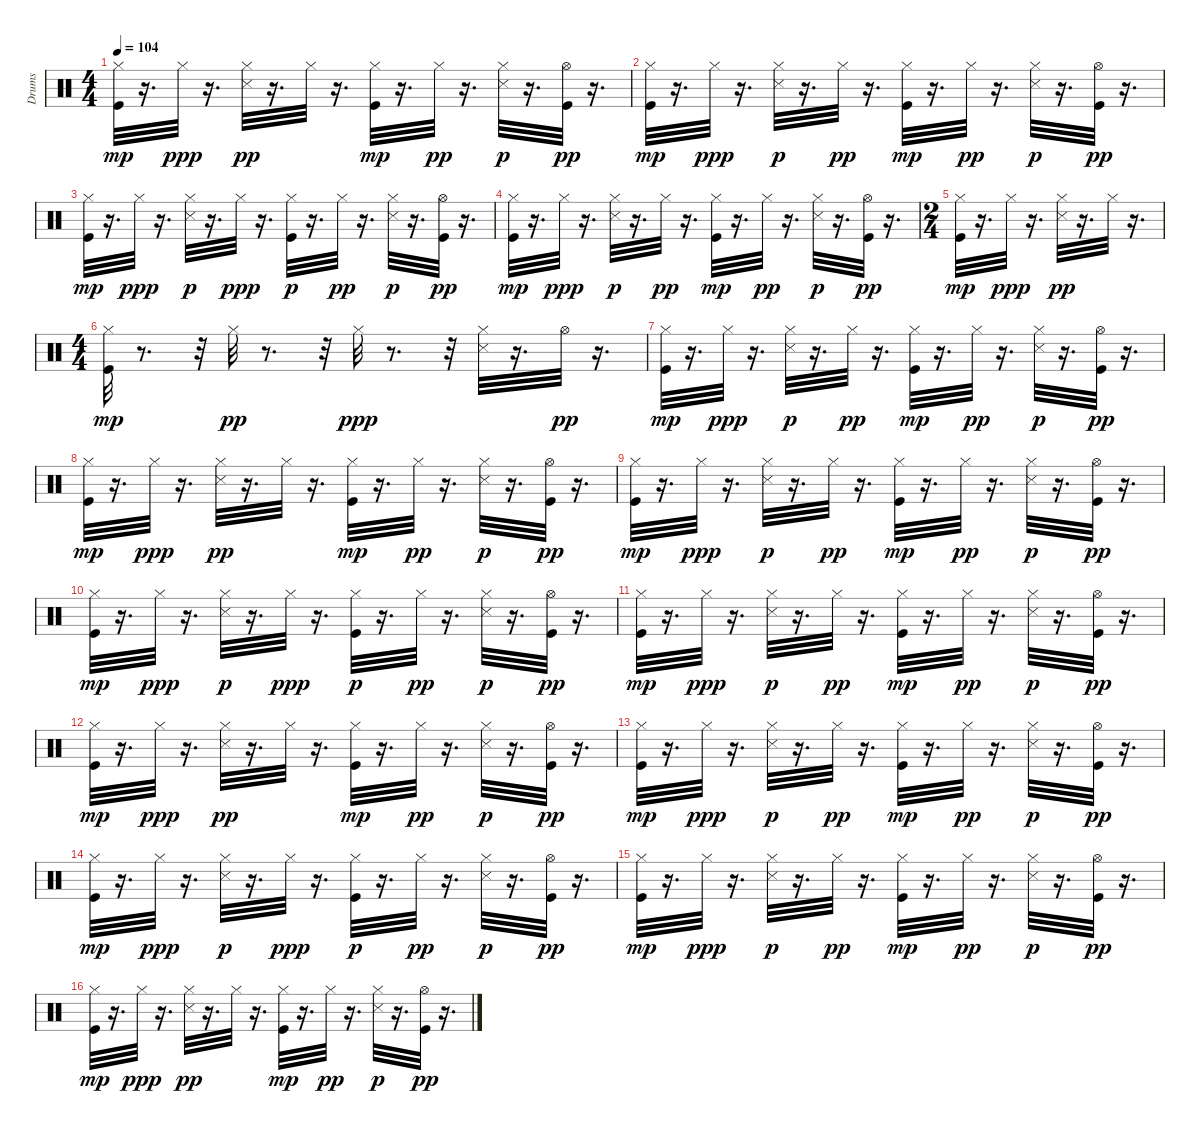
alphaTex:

\track ("Drums" "Drums") {instrument percussion}
\staff {score}
\articulation defaults
\ts (4 4)
\tempo 104
\clef neutral
\ks c
("Kick (hit)" "Hi-Hat (closed)").32{dy mp} r.16{d} "Hi-Hat (closed)".32{dy ppp} r.16{d} ("Snare (side stick) 3" "Hi-Hat (closed)").32{dy pp} r.16{d} "Hi-Hat (closed)".32 r.16{d} ("Kick (hit)" "Hi-Hat (closed)").32{dy mp} r.16{d} "Hi-Hat (closed)".32{dy pp} r.16{d} ("Snare (side stick) 3" "Hi-Hat (closed)").32{dy p} r.16{d} ("Kick (hit)" "Hi-Hat (open)").32{dy pp} r.16{d} |
("Kick (hit)" "Hi-Hat (closed)").32{dy mp} r.16{d} "Hi-Hat (closed)".32{dy ppp} r.16{d} ("Snare (side stick) 3" "Hi-Hat (closed)").32{dy p} r.16{d} "Hi-Hat (closed)".32{dy pp} r.16{d} ("Kick (hit)" "Hi-Hat (closed)").32{dy mp} r.16{d} "Hi-Hat (closed)".32{dy pp} r.16{d} ("Snare (side stick) 3" "Hi-Hat (closed)").32{dy p} r.16{d} ("Kick (hit)" "Hi-Hat (open)").32{dy pp} r.16{d} |
("Kick (hit)" "Hi-Hat (closed)").32{dy mp} r.16{d} "Hi-Hat (closed)".32{dy ppp} r.16{d} ("Snare (side stick) 3" "Hi-Hat (closed)").32{dy p} r.16{d} "Hi-Hat (closed)".32{dy ppp} r.16{d} ("Kick (hit)" "Hi-Hat (closed)").32{dy p} r.16{d} "Hi-Hat (closed)".32{dy pp} r.16{d} ("Snare (side stick) 3" "Hi-Hat (closed)").32{dy p} r.16{d} ("Kick (hit)" "Hi-Hat (open)").32{dy pp} r.16{d} |
("Kick (hit)" "Hi-Hat (closed)").32{dy mp} r.16{d} "Hi-Hat (closed)".32{dy ppp} r.16{d} ("Snare (side stick) 3" "Hi-Hat (closed)").32{dy p} r.16{d} "Hi-Hat (closed)".32{dy pp} r.16{d} ("Kick (hit)" "Hi-Hat (closed)").32{dy mp} r.16{d} "Hi-Hat (closed)".32{dy pp} r.16{d} ("Snare (side stick) 3" "Hi-Hat (closed)").32{dy p} r.16{d} ("Kick (hit)" "Hi-Hat (open)").32{dy pp} r.16{d} |
\ts (2 4)
("Kick (hit)" "Hi-Hat (closed)").32{dy mp} r.16{d} "Hi-Hat (closed)".32{dy ppp} r.16{d} ("Snare (side stick) 3" "Hi-Hat (closed)").32{dy pp} r.16{d} "Hi-Hat (closed)".32 r.16{d} |
\ts (4 4)
("Kick (hit)" "Hi-Hat (closed)").32{dy mp} r.8{d} r.32 "Hi-Hat (closed)".32{dy pp} r.8{d} r.32 "Hi-Hat (closed)".32{dy ppp} r.8{d} r.32 ("Snare (side stick) 3" "Hi-Hat (closed)").32 r.16{d} "Hi-Hat (open)".32{dy pp} r.16{d} |
("Kick (hit)" "Hi-Hat (closed)").32{dy mp} r.16{d} "Hi-Hat (closed)".32{dy ppp} r.16{d} ("Snare (side stick) 3" "Hi-Hat (closed)").32{dy p} r.16{d} "Hi-Hat (closed)".32{dy pp} r.16{d} ("Kick (hit)" "Hi-Hat (closed)").32{dy mp} r.16{d} "Hi-Hat (closed)".32{dy pp} r.16{d} ("Snare (side stick) 3" "Hi-Hat (closed)").32{dy p} r.16{d} ("Kick (hit)" "Hi-Hat (open)").32{dy pp} r.16{d} |
("Kick (hit)" "Hi-Hat (closed)").32{dy mp} r.16{d} "Hi-Hat (closed)".32{dy ppp} r.16{d} ("Snare (side stick) 3" "Hi-Hat (closed)").32{dy pp} r.16{d} "Hi-Hat (closed)".32 r.16{d} ("Kick (hit)" "Hi-Hat (closed)").32{dy mp} r.16{d} "Hi-Hat (closed)".32{dy pp} r.16{d} ("Snare (side stick) 3" "Hi-Hat (closed)").32{dy p} r.16{d} ("Kick (hit)" "Hi-Hat (open)").32{dy pp} r.16{d} |
("Kick (hit)" "Hi-Hat (closed)").32{dy mp} r.16{d} "Hi-Hat (closed)".32{dy ppp} r.16{d} ("Snare (side stick) 3" "Hi-Hat (closed)").32{dy p} r.16{d} "Hi-Hat (closed)".32{dy pp} r.16{d} ("Kick (hit)" "Hi-Hat (closed)").32{dy mp} r.16{d} "Hi-Hat (closed)".32{dy pp} r.16{d} ("Snare (side stick) 3" "Hi-Hat (closed)").32{dy p} r.16{d} ("Kick (hit)" "Hi-Hat (open)").32{dy pp} r.16{d} |
("Kick (hit)" "Hi-Hat (closed)").32{dy mp} r.16{d} "Hi-Hat (closed)".32{dy ppp} r.16{d} ("Snare (side stick) 3" "Hi-Hat (closed)").32{dy p} r.16{d} "Hi-Hat (closed)".32{dy ppp} r.16{d} ("Kick (hit)" "Hi-Hat (closed)").32{dy p} r.16{d} "Hi-Hat (closed)".32{dy pp} r.16{d} ("Snare (side stick) 3" "Hi-Hat (closed)").32{dy p} r.16{d} ("Kick (hit)" "Hi-Hat (open)").32{dy pp} r.16{d} |
("Kick (hit)" "Hi-Hat (closed)").32{dy mp} r.16{d} "Hi-Hat (closed)".32{dy ppp} r.16{d} ("Snare (side stick) 3" "Hi-Hat (closed)").32{dy p} r.16{d} "Hi-Hat (closed)".32{dy pp} r.16{d} ("Kick (hit)" "Hi-Hat (closed)").32{dy mp} r.16{d} "Hi-Hat (closed)".32{dy pp} r.16{d} ("Snare (side stick) 3" "Hi-Hat (closed)").32{dy p} r.16{d} ("Kick (hit)" "Hi-Hat (open)").32{dy pp} r.16{d} |
("Kick (hit)" "Hi-Hat (closed)").32{dy mp} r.16{d} "Hi-Hat (closed)".32{dy ppp} r.16{d} ("Snare (side stick) 3" "Hi-Hat (closed)").32{dy pp} r.16{d} "Hi-Hat (closed)".32 r.16{d} ("Kick (hit)" "Hi-Hat (closed)").32{dy mp} r.16{d} "Hi-Hat (closed)".32{dy pp} r.16{d} ("Snare (side stick) 3" "Hi-Hat (closed)").32{dy p} r.16{d} ("Kick (hit)" "Hi-Hat (open)").32{dy pp} r.16{d} |
("Kick (hit)" "Hi-Hat (closed)").32{dy mp} r.16{d} "Hi-Hat (closed)".32{dy ppp} r.16{d} ("Snare (side stick) 3" "Hi-Hat (closed)").32{dy p} r.16{d} "Hi-Hat (closed)".32{dy pp} r.16{d} ("Kick (hit)" "Hi-Hat (closed)").32{dy mp} r.16{d} "Hi-Hat (closed)".32{dy pp} r.16{d} ("Snare (side stick) 3" "Hi-Hat (closed)").32{dy p} r.16{d} ("Kick (hit)" "Hi-Hat (open)").32{dy pp} r.16{d} |
("Kick (hit)" "Hi-Hat (closed)").32{dy mp} r.16{d} "Hi-Hat (closed)".32{dy ppp} r.16{d} ("Snare (side stick) 3" "Hi-Hat (closed)").32{dy p} r.16{d} "Hi-Hat (closed)".32{dy ppp} r.16{d} ("Kick (hit)" "Hi-Hat (closed)").32{dy p} r.16{d} "Hi-Hat (closed)".32{dy pp} r.16{d} ("Snare (side stick) 3" "Hi-Hat (closed)").32{dy p} r.16{d} ("Kick (hit)" "Hi-Hat (open)").32{dy pp} r.16{d} |
("Kick (hit)" "Hi-Hat (closed)").32{dy mp} r.16{d} "Hi-Hat (closed)".32{dy ppp} r.16{d} ("Snare (side stick) 3" "Hi-Hat (closed)").32{dy p} r.16{d} "Hi-Hat (closed)".32{dy pp} r.16{d} ("Kick (hit)" "Hi-Hat (closed)").32{dy mp} r.16{d} "Hi-Hat (closed)".32{dy pp} r.16{d} ("Snare (side stick) 3" "Hi-Hat (closed)").32{dy p} r.16{d} ("Kick (hit)" "Hi-Hat (open)").32{dy pp} r.16{d} |
("Kick (hit)" "Hi-Hat (closed)").32{dy mp} r.16{d} "Hi-Hat (closed)".32{dy ppp} r.16{d} ("Snare (side stick) 3" "Hi-Hat (closed)").32{dy pp} r.16{d} "Hi-Hat (closed)".32 r.16{d} ("Kick (hit)" "Hi-Hat (closed)").32{dy mp} r.16{d} "Hi-Hat (closed)".32{dy pp} r.16{d} ("Snare (side stick) 3" "Hi-Hat (closed)").32{dy p} r.16{d} ("Kick (hit)" "Hi-Hat (open)").32{dy pp} r.16{d}
